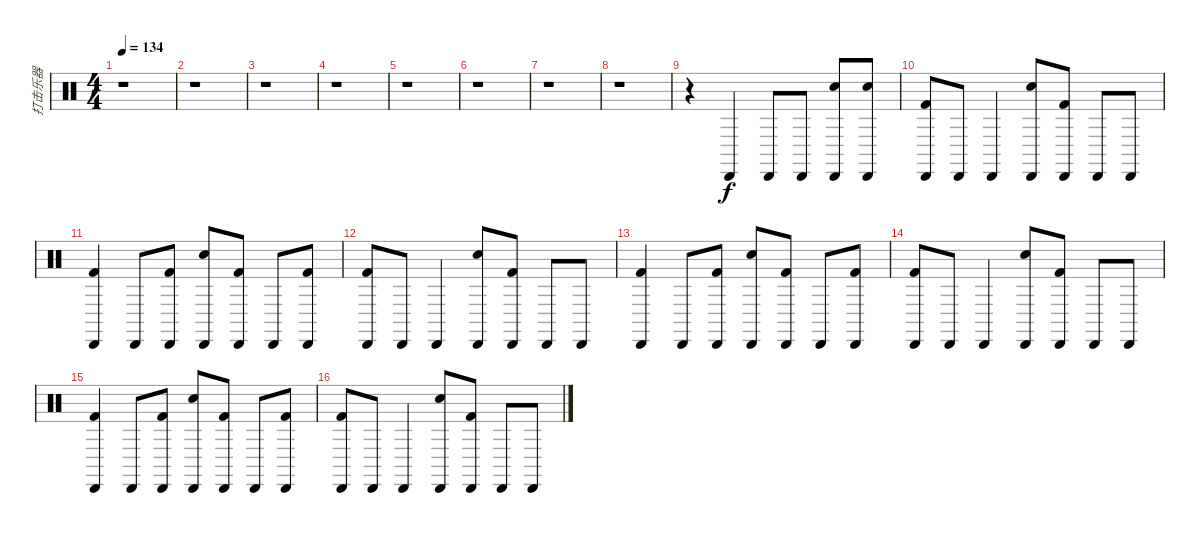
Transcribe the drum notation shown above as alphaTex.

\track ("打击乐器" "打击乐器") {instrument percussion}
\staff {score}
\articulation defaults
\ts (4 4)
\tempo 134
\clef neutral
\ks c
r.1{dy f} |
r.1 |
r.1 |
r.1 |
r.1 |
r.1 |
r.1 |
r.1 |
r.4 "Cabasa (hit)".4 "Cabasa (hit)".8 "Cabasa (hit)".8 ("Snare (hit) 2" "Cabasa (hit)").8 ("Snare (hit) 2" "Cabasa (hit)").8 |
("Cabasa (hit)" "Kick (hit) 2").8 "Cabasa (hit)".8 "Cabasa (hit)".4 ("Snare (hit) 2" "Cabasa (hit)").8 ("Cabasa (hit)" "Kick (hit) 2").8 "Cabasa (hit)".8 "Cabasa (hit)".8 |
("Cabasa (hit)" "Kick (hit) 2").4 "Cabasa (hit)".8 ("Cabasa (hit)" "Kick (hit) 2").8 ("Snare (hit) 2" "Cabasa (hit)").8 ("Cabasa (hit)" "Kick (hit) 2").8 "Cabasa (hit)".8 ("Cabasa (hit)" "Kick (hit) 2").8 |
("Cabasa (hit)" "Kick (hit) 2").8 "Cabasa (hit)".8 "Cabasa (hit)".4 ("Snare (hit) 2" "Cabasa (hit)").8 ("Cabasa (hit)" "Kick (hit) 2").8 "Cabasa (hit)".8 "Cabasa (hit)".8 |
("Cabasa (hit)" "Kick (hit) 2").4 "Cabasa (hit)".8 ("Cabasa (hit)" "Kick (hit) 2").8 ("Snare (hit) 2" "Cabasa (hit)").8 ("Cabasa (hit)" "Kick (hit) 2").8 "Cabasa (hit)".8 ("Cabasa (hit)" "Kick (hit) 2").8 |
("Cabasa (hit)" "Kick (hit) 2").8 "Cabasa (hit)".8 "Cabasa (hit)".4 ("Snare (hit) 2" "Cabasa (hit)").8 ("Cabasa (hit)" "Kick (hit) 2").8 "Cabasa (hit)".8 "Cabasa (hit)".8 |
("Cabasa (hit)" "Kick (hit) 2").4 "Cabasa (hit)".8 ("Cabasa (hit)" "Kick (hit) 2").8 ("Snare (hit) 2" "Cabasa (hit)").8 ("Cabasa (hit)" "Kick (hit) 2").8 "Cabasa (hit)".8 ("Cabasa (hit)" "Kick (hit) 2").8 |
("Cabasa (hit)" "Kick (hit) 2").8 "Cabasa (hit)".8 "Cabasa (hit)".4 ("Snare (hit) 2" "Cabasa (hit)").8 ("Cabasa (hit)" "Kick (hit) 2").8 "Cabasa (hit)".8 "Cabasa (hit)".8
